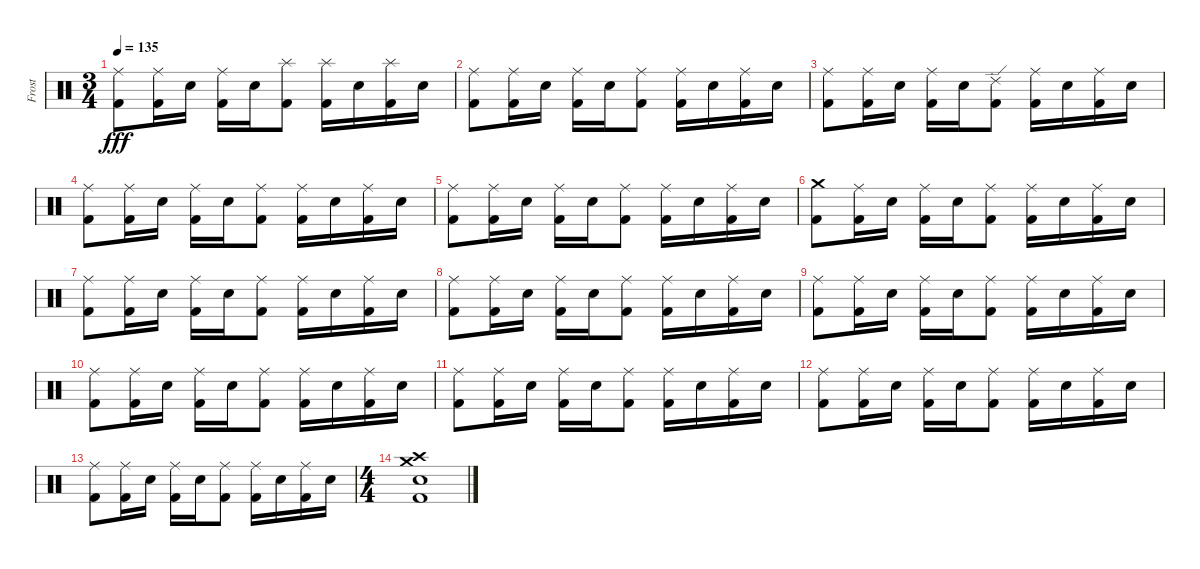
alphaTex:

\track ("Frost" "Frost") {instrument percussion}
\staff {score}
\articulation defaults
\ts (3 4)
\tempo 135
\clef neutral
\ks c
("Ride (middle)" "Kick (hit) 2").8{dy fff} ("Ride (middle)" "Kick (hit) 2").16 "Electric Snare (hit)".16 ("Ride (middle)" "Kick (hit) 2").16 "Electric Snare (hit)".16 ("Splash (hit)" "Kick (hit) 2").8 ("Splash (hit)" "Kick (hit) 2").16 "Electric Snare (hit)".16 ("Splash (hit)" "Kick (hit) 2").16 "Electric Snare (hit)".16 |
("Ride (middle)" "Kick (hit) 2").8 ("Ride (middle)" "Kick (hit) 2").16 "Electric Snare (hit)".16 ("Ride (middle)" "Kick (hit) 2").16 "Electric Snare (hit)".16 ("Ride (middle)" "Kick (hit) 2").8 ("Ride (middle)" "Kick (hit) 2").16 "Electric Snare (hit)".16 ("Ride (middle)" "Kick (hit) 2").16 "Electric Snare (hit)".16 |
("Ride (middle)" "Kick (hit) 2").8 ("Ride (middle)" "Kick (hit) 2").16 "Electric Snare (hit)".16 ("Ride (middle)" "Kick (hit) 2").16 "Electric Snare (hit)".16 ("Ride (edge) 2" "Kick (hit) 2").8 ("Ride (middle)" "Kick (hit) 2").16 "Electric Snare (hit)".16 ("Ride (middle)" "Kick (hit) 2").16 "Electric Snare (hit)".16 |
("Ride (middle)" "Kick (hit) 2").8 ("Ride (middle)" "Kick (hit) 2").16 "Electric Snare (hit)".16 ("Ride (middle)" "Kick (hit) 2").16 "Electric Snare (hit)".16 ("Ride (middle)" "Kick (hit) 2").8 ("Ride (middle)" "Kick (hit) 2").16 "Electric Snare (hit)".16 ("Ride (middle)" "Kick (hit) 2").16 "Electric Snare (hit)".16 |
("Ride (middle)" "Kick (hit) 2").8 ("Ride (middle)" "Kick (hit) 2").16 "Electric Snare (hit)".16 ("Ride (middle)" "Kick (hit) 2").16 "Electric Snare (hit)".16 ("Ride (middle)" "Kick (hit) 2").8 ("Ride (middle)" "Kick (hit) 2").16 "Electric Snare (hit)".16 ("Ride (middle)" "Kick (hit) 2").16 "Electric Snare (hit)".16 |
("Crash medium (hit)" "Kick (hit) 2").8 ("Ride (middle)" "Kick (hit) 2").16 "Electric Snare (hit)".16 ("Ride (middle)" "Kick (hit) 2").16 "Electric Snare (hit)".16 ("Ride (middle)" "Kick (hit) 2").8 ("Ride (middle)" "Kick (hit) 2").16 "Electric Snare (hit)".16 ("Ride (middle)" "Kick (hit) 2").16 "Electric Snare (hit)".16 |
("Ride (middle)" "Kick (hit) 2").8 ("Ride (middle)" "Kick (hit) 2").16 "Electric Snare (hit)".16 ("Ride (middle)" "Kick (hit) 2").16 "Electric Snare (hit)".16 ("Ride (middle)" "Kick (hit) 2").8 ("Ride (middle)" "Kick (hit) 2").16 "Electric Snare (hit)".16 ("Ride (middle)" "Kick (hit) 2").16 "Electric Snare (hit)".16 |
("Ride (middle)" "Kick (hit) 2").8 ("Ride (middle)" "Kick (hit) 2").16 "Electric Snare (hit)".16 ("Ride (middle)" "Kick (hit) 2").16 "Electric Snare (hit)".16 ("Ride (middle)" "Kick (hit) 2").8 ("Ride (middle)" "Kick (hit) 2").16 "Electric Snare (hit)".16 ("Ride (middle)" "Kick (hit) 2").16 "Electric Snare (hit)".16 |
("Ride (middle)" "Kick (hit) 2").8 ("Ride (middle)" "Kick (hit) 2").16 "Electric Snare (hit)".16 ("Ride (middle)" "Kick (hit) 2").16 "Electric Snare (hit)".16 ("Ride (middle)" "Kick (hit) 2").8 ("Ride (middle)" "Kick (hit) 2").16 "Electric Snare (hit)".16 ("Ride (middle)" "Kick (hit) 2").16 "Electric Snare (hit)".16 |
("Ride (middle)" "Kick (hit) 2").8 ("Ride (middle)" "Kick (hit) 2").16 "Electric Snare (hit)".16 ("Ride (middle)" "Kick (hit) 2").16 "Electric Snare (hit)".16 ("Ride (middle)" "Kick (hit) 2").8 ("Ride (middle)" "Kick (hit) 2").16 "Electric Snare (hit)".16 ("Ride (middle)" "Kick (hit) 2").16 "Electric Snare (hit)".16 |
("Ride (middle)" "Kick (hit) 2").8 ("Ride (middle)" "Kick (hit) 2").16 "Electric Snare (hit)".16 ("Ride (middle)" "Kick (hit) 2").16 "Electric Snare (hit)".16 ("Ride (middle)" "Kick (hit) 2").8 ("Ride (middle)" "Kick (hit) 2").16 "Electric Snare (hit)".16 ("Ride (middle)" "Kick (hit) 2").16 "Electric Snare (hit)".16 |
("Ride (middle)" "Kick (hit) 2").8 ("Ride (middle)" "Kick (hit) 2").16 "Electric Snare (hit)".16 ("Ride (middle)" "Kick (hit) 2").16 "Electric Snare (hit)".16 ("Ride (middle)" "Kick (hit) 2").8 ("Ride (middle)" "Kick (hit) 2").16 "Electric Snare (hit)".16 ("Ride (middle)" "Kick (hit) 2").16 "Electric Snare (hit)".16 |
("Ride (middle)" "Kick (hit) 2").8 ("Ride (middle)" "Kick (hit) 2").16 "Electric Snare (hit)".16 ("Ride (middle)" "Kick (hit) 2").16 "Electric Snare (hit)".16 ("Ride (middle)" "Kick (hit) 2").8 ("Ride (middle)" "Kick (hit) 2").16 "Electric Snare (hit)".16 ("Ride (middle)" "Kick (hit) 2").16 "Electric Snare (hit)".16 |
\ts (4 4)
("Crash medium (hit)" "Crash high (hit)" "Electric Snare (hit)" "Kick (hit) 2").1
